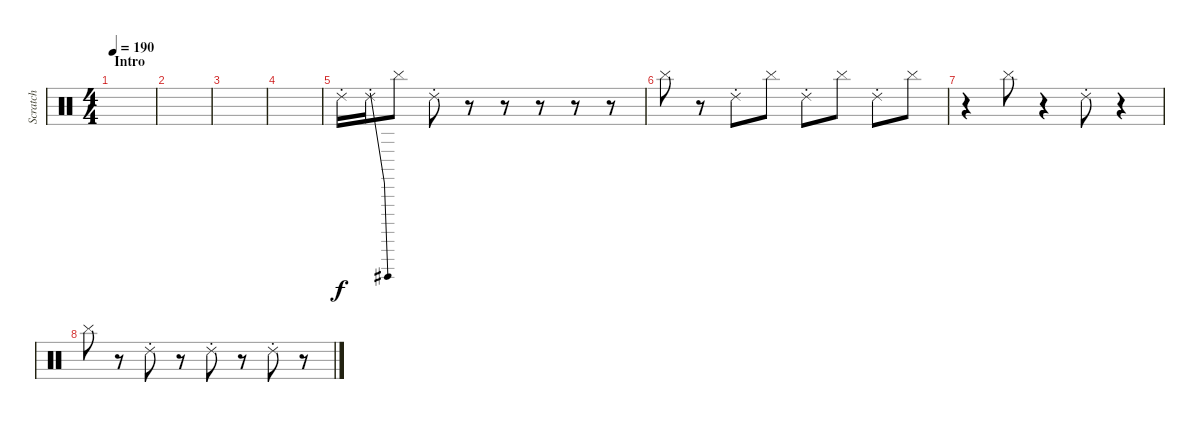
\track ("Scratch" "Scratch") {instrument percussion}
\staff {score}
\articulation defaults
\ts (4 4)
\section ("" "Intro")
\tempo 190
\clef neutral
\ks c
|
|
|
|
"Ride (choke) 2".16 "Ride (choke) 2"{be (bend 0 0 60 12)}.16 "Cymbal (hit)".8 "Ride (choke) 2".8 r.8 r.8 r.8 r.8 r.8 |
"Cymbal (hit)".8 r.8 "Ride (choke) 2".8 "Cymbal (hit)".8 "Ride (choke) 2".8 "Cymbal (hit)".8 "Ride (choke) 2".8 "Cymbal (hit)".8 |
r.4 "Cymbal (hit)".8 r.4 "Ride (choke) 2".8 r.4 |
"Cymbal (hit)".8 r.8 "Ride (choke) 2".8 r.8 "Ride (choke) 2".8 r.8 "Ride (choke) 2".8 r.8
